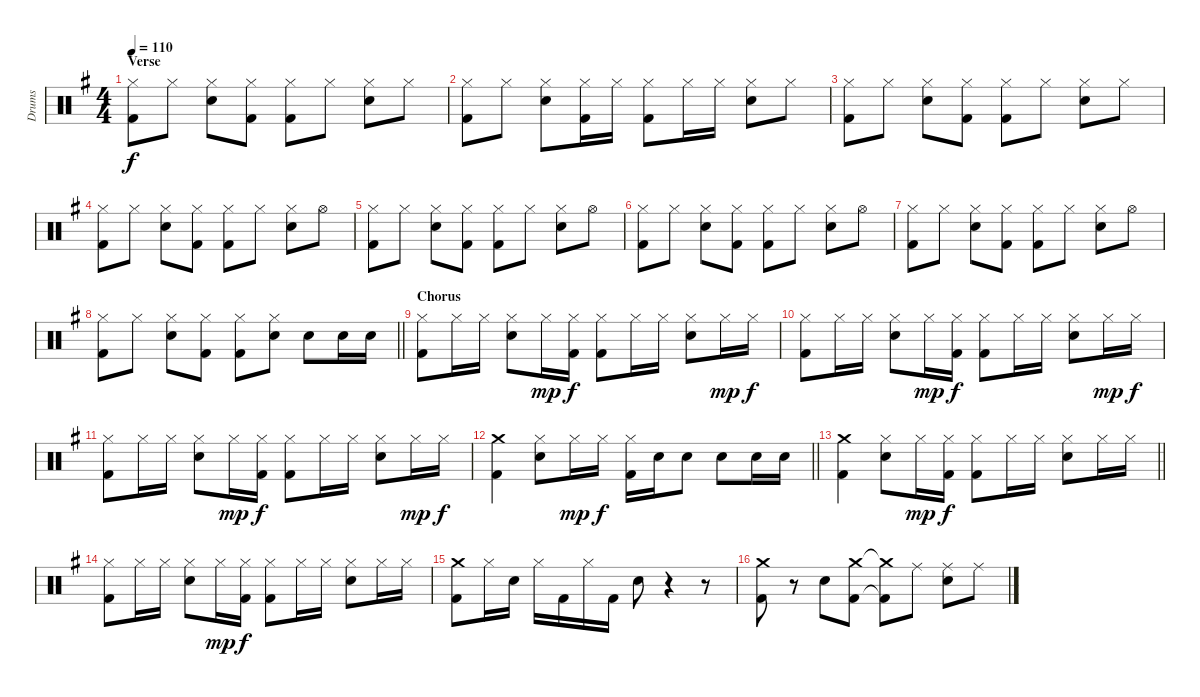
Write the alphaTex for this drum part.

\track ("Drums" "Drums") {instrument percussion}
\staff {score}
\articulation defaults
\ts (4 4)
\section ("" "Verse")
\tempo 110
\clef neutral
\ks g
("Hi-Hat (closed)" "Kick (hit) 2").8{dy f} "Hi-Hat (closed)".8 ("Hi-Hat (closed)" "Electric Snare (hit)").8 ("Hi-Hat (closed)" "Kick (hit) 2").8 ("Hi-Hat (closed)" "Kick (hit) 2").8 "Hi-Hat (closed)".8 ("Hi-Hat (closed)" "Electric Snare (hit)").8 "Hi-Hat (closed)".8 |
("Hi-Hat (closed)" "Kick (hit) 2").8 "Hi-Hat (closed)".8 ("Hi-Hat (closed)" "Electric Snare (hit)").8 ("Hi-Hat (closed)" "Kick (hit) 2").16 "Hi-Hat (closed)".16 ("Hi-Hat (closed)" "Kick (hit) 2").8 "Hi-Hat (closed)".16 "Hi-Hat (closed)".16 ("Hi-Hat (closed)" "Electric Snare (hit)").8 "Hi-Hat (closed)".8 |
("Hi-Hat (closed)" "Kick (hit) 2").8 "Hi-Hat (closed)".8 ("Hi-Hat (closed)" "Electric Snare (hit)").8 ("Hi-Hat (closed)" "Kick (hit) 2").8 ("Hi-Hat (closed)" "Kick (hit) 2").8 "Hi-Hat (closed)".8 ("Hi-Hat (closed)" "Electric Snare (hit)").8 "Hi-Hat (closed)".8 |
("Hi-Hat (closed)" "Kick (hit) 2").8 "Hi-Hat (closed)".8 ("Hi-Hat (closed)" "Electric Snare (hit)").8 ("Hi-Hat (closed)" "Kick (hit) 2").8 ("Hi-Hat (closed)" "Kick (hit) 2").8 "Hi-Hat (closed)".8 ("Hi-Hat (closed)" "Electric Snare (hit)").8 "Hi-Hat (open)".8 |
("Hi-Hat (closed)" "Kick (hit) 2").8 "Hi-Hat (closed)".8 ("Hi-Hat (closed)" "Electric Snare (hit)").8 ("Hi-Hat (closed)" "Kick (hit) 2").8 ("Hi-Hat (closed)" "Kick (hit) 2").8 "Hi-Hat (closed)".8 ("Hi-Hat (closed)" "Electric Snare (hit)").8 "Hi-Hat (open)".8 |
("Hi-Hat (closed)" "Kick (hit) 2").8 "Hi-Hat (closed)".8 ("Hi-Hat (closed)" "Electric Snare (hit)").8 ("Hi-Hat (closed)" "Kick (hit) 2").8 ("Hi-Hat (closed)" "Kick (hit) 2").8 "Hi-Hat (closed)".8 ("Hi-Hat (closed)" "Electric Snare (hit)").8 "Hi-Hat (open)".8 |
("Hi-Hat (closed)" "Kick (hit) 2").8 "Hi-Hat (closed)".8 ("Hi-Hat (closed)" "Electric Snare (hit)").8 ("Hi-Hat (closed)" "Kick (hit) 2").8 ("Hi-Hat (closed)" "Kick (hit) 2").8 "Hi-Hat (closed)".8 ("Hi-Hat (closed)" "Electric Snare (hit)").8 "Hi-Hat (open)".8 |
\barLineRight lightlight
("Hi-Hat (closed)" "Kick (hit) 2").8 "Hi-Hat (closed)".8 ("Hi-Hat (closed)" "Electric Snare (hit)").8 ("Hi-Hat (closed)" "Kick (hit) 2").8 ("Hi-Hat (closed)" "Kick (hit) 2").8 ("Hi-Hat (closed)" "Electric Snare (hit)").8 "Electric Snare (hit)".8 "Electric Snare (hit)".16 "Electric Snare (hit)".16 |
\section ("" "Chorus")
("Hi-Hat (closed)" "Kick (hit) 2").8 "Hi-Hat (closed)".16 "Hi-Hat (closed)".16 ("Hi-Hat (closed)" "Electric Snare (hit)").8 "Hi-Hat (closed)".16{dy mp} ("Hi-Hat (closed)" "Kick (hit) 2").16{dy f} ("Hi-Hat (closed)" "Kick (hit) 2").8 "Hi-Hat (closed)".16 "Hi-Hat (closed)".16 ("Hi-Hat (closed)" "Electric Snare (hit)").8 "Hi-Hat (closed)".16{dy mp} "Hi-Hat (closed)".16{dy f} |
("Hi-Hat (closed)" "Kick (hit) 2").8 "Hi-Hat (closed)".16 "Hi-Hat (closed)".16 ("Hi-Hat (closed)" "Electric Snare (hit)").8 "Hi-Hat (closed)".16{dy mp} ("Hi-Hat (closed)" "Kick (hit) 2").16{dy f} ("Hi-Hat (closed)" "Kick (hit) 2").8 "Hi-Hat (closed)".16 "Hi-Hat (closed)".16 ("Hi-Hat (closed)" "Electric Snare (hit)").8 "Hi-Hat (closed)".16{dy mp} "Hi-Hat (closed)".16{dy f} |
("Hi-Hat (closed)" "Kick (hit) 2").8 "Hi-Hat (closed)".16 "Hi-Hat (closed)".16 ("Hi-Hat (closed)" "Electric Snare (hit)").8 "Hi-Hat (closed)".16{dy mp} ("Hi-Hat (closed)" "Kick (hit) 2").16{dy f} ("Hi-Hat (closed)" "Kick (hit) 2").8 "Hi-Hat (closed)".16 "Hi-Hat (closed)".16 ("Hi-Hat (closed)" "Electric Snare (hit)").8 "Hi-Hat (closed)".16{dy mp} "Hi-Hat (closed)".16{dy f} |
\barLineRight lightlight
("Crash medium (hit)" "Kick (hit) 2").4 ("Hi-Hat (closed)" "Electric Snare (hit)").8 "Hi-Hat (closed)".16{dy mp} "Hi-Hat (closed)".16{dy f} ("Hi-Hat (closed)" "Kick (hit) 2").16 "Electric Snare (hit)".16 "Electric Snare (hit)".8 "Electric Snare (hit)".8 "Electric Snare (hit)".16 "Electric Snare (hit)".16 |
\barLineRight lightlight
("Crash medium (hit)" "Kick (hit) 2").4 ("Hi-Hat (closed)" "Electric Snare (hit)").8 "Hi-Hat (closed)".16{dy mp} ("Hi-Hat (closed)" "Kick (hit) 2").16{dy f} ("Hi-Hat (closed)" "Kick (hit) 2").8 "Hi-Hat (closed)".16 "Hi-Hat (closed)".16 ("Hi-Hat (closed)" "Electric Snare (hit)").8 "Hi-Hat (closed)".16 "Hi-Hat (closed)".16 |
("Hi-Hat (closed)" "Kick (hit) 2").8 "Hi-Hat (closed)".16 "Hi-Hat (closed)".16 ("Hi-Hat (closed)" "Electric Snare (hit)").8 "Hi-Hat (closed)".16{dy mp} ("Hi-Hat (closed)" "Kick (hit) 2").16{dy f} ("Hi-Hat (closed)" "Kick (hit) 2").8 "Hi-Hat (closed)".16 "Hi-Hat (closed)".16 ("Hi-Hat (closed)" "Electric Snare (hit)").8 "Hi-Hat (closed)".16 "Hi-Hat (closed)".16 |
("Crash medium (hit)" "Kick (hit) 2").8 "Hi-Hat (closed)".16 "Electric Snare (hit)".16 "Hi-Hat (closed)".16 "Kick (hit) 2".16 "Hi-Hat (closed)".16 "Kick (hit) 2".16 "Electric Snare (hit)".8 r.4 r.8 |
("Crash medium (hit)" "Kick (hit) 2").8 r.8 "Electric Snare (hit)".8 ("Crash medium (hit)" "Kick (hit) 2").8 ("Crash medium (hit)"{t} "Kick (hit) 2"{t}).8 "Ride (middle)".8 ("Ride (middle)" "Electric Snare (hit)").8 "Ride (middle)".8
